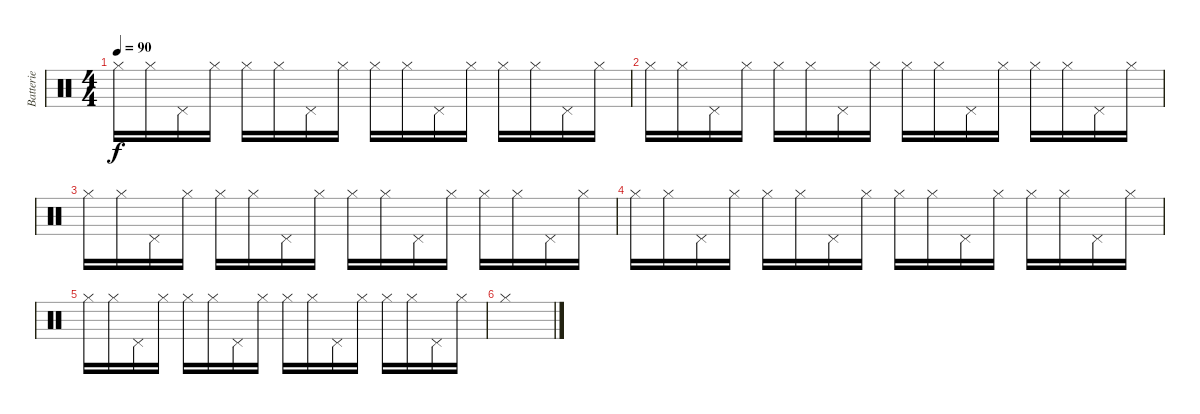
\track ("Batterie" "Batterie") {instrument percussion}
\staff {score}
\articulation defaults
\ts (4 4)
\tempo 90
\clef neutral
\ks c "Hi-Hat (closed)".16{dy f} "Hi-Hat (closed)".16 "Pedal Hi-Hat (hit)".16 "Hi-Hat (closed)".16 "Hi-Hat (closed)".16 "Hi-Hat (closed)".16 "Pedal Hi-Hat (hit)".16 "Hi-Hat (closed)".16 "Hi-Hat (closed)".16 "Hi-Hat (closed)".16 "Pedal Hi-Hat (hit)".16 "Hi-Hat (closed)".16 "Hi-Hat (closed)".16 "Hi-Hat (closed)".16 "Pedal Hi-Hat (hit)".16 "Hi-Hat (closed)".16
|
"Hi-Hat (closed)".16 "Hi-Hat (closed)".16 "Pedal Hi-Hat (hit)".16 "Hi-Hat (closed)".16 "Hi-Hat (closed)".16 "Hi-Hat (closed)".16 "Pedal Hi-Hat (hit)".16 "Hi-Hat (closed)".16 "Hi-Hat (closed)".16 "Hi-Hat (closed)".16 "Pedal Hi-Hat (hit)".16 "Hi-Hat (closed)".16 "Hi-Hat (closed)".16 "Hi-Hat (closed)".16 "Pedal Hi-Hat (hit)".16 "Hi-Hat (closed)".16 |
"Hi-Hat (closed)".16 "Hi-Hat (closed)".16 "Pedal Hi-Hat (hit)".16 "Hi-Hat (closed)".16 "Hi-Hat (closed)".16 "Hi-Hat (closed)".16 "Pedal Hi-Hat (hit)".16 "Hi-Hat (closed)".16 "Hi-Hat (closed)".16 "Hi-Hat (closed)".16 "Pedal Hi-Hat (hit)".16 "Hi-Hat (closed)".16 "Hi-Hat (closed)".16 "Hi-Hat (closed)".16 "Pedal Hi-Hat (hit)".16 "Hi-Hat (closed)".16 |
"Hi-Hat (closed)".16 "Hi-Hat (closed)".16 "Pedal Hi-Hat (hit)".16 "Hi-Hat (closed)".16 "Hi-Hat (closed)".16 "Hi-Hat (closed)".16 "Pedal Hi-Hat (hit)".16 "Hi-Hat (closed)".16 "Hi-Hat (closed)".16 "Hi-Hat (closed)".16 "Pedal Hi-Hat (hit)".16 "Hi-Hat (closed)".16 "Hi-Hat (closed)".16 "Hi-Hat (closed)".16 "Pedal Hi-Hat (hit)".16 "Hi-Hat (closed)".16 |
"Hi-Hat (closed)".16 "Hi-Hat (closed)".16 "Pedal Hi-Hat (hit)".16 "Hi-Hat (closed)".16 "Hi-Hat (closed)".16 "Hi-Hat (closed)".16 "Pedal Hi-Hat (hit)".16 "Hi-Hat (closed)".16 "Hi-Hat (closed)".16 "Hi-Hat (closed)".16 "Pedal Hi-Hat (hit)".16 "Hi-Hat (closed)".16 "Hi-Hat (closed)".16 "Hi-Hat (closed)".16 "Pedal Hi-Hat (hit)".16 "Hi-Hat (closed)".16 |
"Hi-Hat (closed)".1
